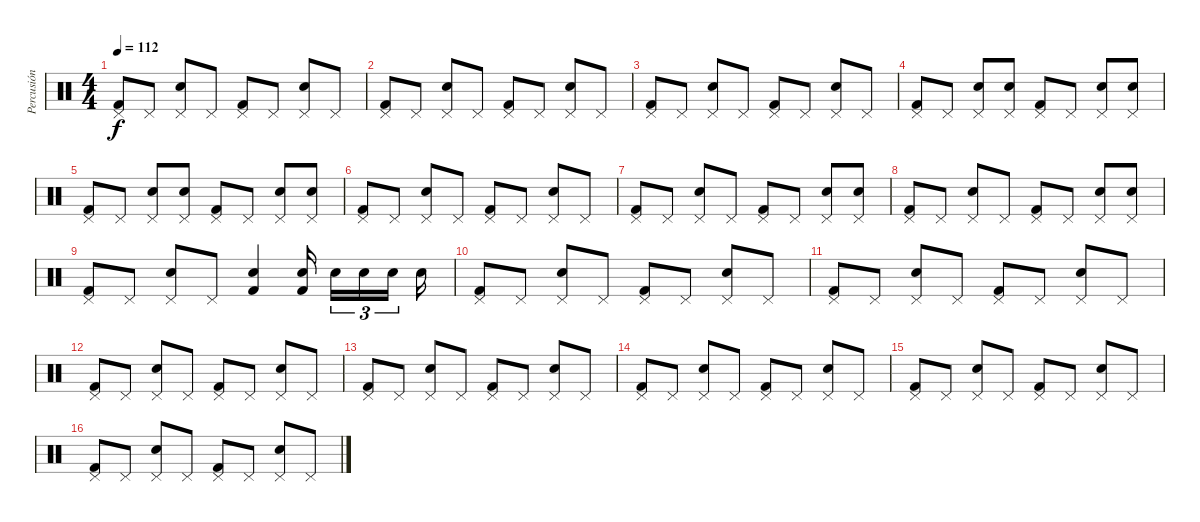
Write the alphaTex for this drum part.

\track ("Percusión" "Percusión") {instrument percussion}
\staff {score}
\articulation defaults
\ts (4 4)
\tempo 112
\clef neutral
\ks c
("Pedal Hi-Hat (hit)" "Kick (hit) 2").8{dy f} "Pedal Hi-Hat (hit)".8 ("Snare (hit) 2" "Pedal Hi-Hat (hit)").8 "Pedal Hi-Hat (hit)".8 ("Pedal Hi-Hat (hit)" "Kick (hit) 2").8 "Pedal Hi-Hat (hit)".8 ("Snare (hit) 2" "Pedal Hi-Hat (hit)").8 "Pedal Hi-Hat (hit)".8 |
("Pedal Hi-Hat (hit)" "Kick (hit) 2").8 "Pedal Hi-Hat (hit)".8 ("Snare (hit) 2" "Pedal Hi-Hat (hit)").8 "Pedal Hi-Hat (hit)".8 ("Pedal Hi-Hat (hit)" "Kick (hit) 2").8 "Pedal Hi-Hat (hit)".8 ("Snare (hit) 2" "Pedal Hi-Hat (hit)").8 "Pedal Hi-Hat (hit)".8 |
("Pedal Hi-Hat (hit)" "Kick (hit) 2").8 "Pedal Hi-Hat (hit)".8 ("Snare (hit) 2" "Pedal Hi-Hat (hit)").8 "Pedal Hi-Hat (hit)".8 ("Pedal Hi-Hat (hit)" "Kick (hit) 2").8 "Pedal Hi-Hat (hit)".8 ("Snare (hit) 2" "Pedal Hi-Hat (hit)").8 "Pedal Hi-Hat (hit)".8 |
("Pedal Hi-Hat (hit)" "Kick (hit) 2").8 "Pedal Hi-Hat (hit)".8 ("Snare (hit) 2" "Pedal Hi-Hat (hit)").8 ("Snare (hit) 2" "Pedal Hi-Hat (hit)").8 ("Pedal Hi-Hat (hit)" "Kick (hit) 2").8 "Pedal Hi-Hat (hit)".8 ("Snare (hit) 2" "Pedal Hi-Hat (hit)").8 ("Snare (hit) 2" "Pedal Hi-Hat (hit)").8 |
("Pedal Hi-Hat (hit)" "Kick (hit) 2").8 "Pedal Hi-Hat (hit)".8 ("Snare (hit) 2" "Pedal Hi-Hat (hit)").8 ("Snare (hit) 2" "Pedal Hi-Hat (hit)").8 ("Pedal Hi-Hat (hit)" "Kick (hit) 2").8 "Pedal Hi-Hat (hit)".8 ("Snare (hit) 2" "Pedal Hi-Hat (hit)").8 ("Snare (hit) 2" "Pedal Hi-Hat (hit)").8 |
("Pedal Hi-Hat (hit)" "Kick (hit) 2").8 "Pedal Hi-Hat (hit)".8 ("Snare (hit) 2" "Pedal Hi-Hat (hit)").8 "Pedal Hi-Hat (hit)".8 ("Pedal Hi-Hat (hit)" "Kick (hit) 2").8 "Pedal Hi-Hat (hit)".8 ("Snare (hit) 2" "Pedal Hi-Hat (hit)").8 "Pedal Hi-Hat (hit)".8 |
("Pedal Hi-Hat (hit)" "Kick (hit) 2").8 "Pedal Hi-Hat (hit)".8 ("Snare (hit) 2" "Pedal Hi-Hat (hit)").8 "Pedal Hi-Hat (hit)".8 ("Pedal Hi-Hat (hit)" "Kick (hit) 2").8 "Pedal Hi-Hat (hit)".8 ("Snare (hit) 2" "Pedal Hi-Hat (hit)").8 ("Snare (hit) 2" "Pedal Hi-Hat (hit)").8 |
("Pedal Hi-Hat (hit)" "Kick (hit) 2").8 "Pedal Hi-Hat (hit)".8 ("Snare (hit) 2" "Pedal Hi-Hat (hit)").8 "Pedal Hi-Hat (hit)".8 ("Pedal Hi-Hat (hit)" "Kick (hit) 2").8 "Pedal Hi-Hat (hit)".8 ("Snare (hit) 2" "Pedal Hi-Hat (hit)").8 ("Snare (hit) 2" "Pedal Hi-Hat (hit)").8 |
("Pedal Hi-Hat (hit)" "Kick (hit) 2").8 "Pedal Hi-Hat (hit)".8 ("Snare (hit) 2" "Pedal Hi-Hat (hit)").8 "Pedal Hi-Hat (hit)".8 ("Snare (hit) 2" "Kick (hit) 2").4 ("Snare (hit) 2" "Kick (hit) 2").16{beam splitsecondary} "Snare (hit) 2".16{tu (3 2)} "Snare (hit) 2".16{tu (3 2)} "Snare (hit) 2".16{tu (3 2) beam splitsecondary} "Snare (hit) 2".16 |
("Pedal Hi-Hat (hit)" "Kick (hit) 2").8 "Pedal Hi-Hat (hit)".8 ("Snare (hit) 2" "Pedal Hi-Hat (hit)").8 "Pedal Hi-Hat (hit)".8 ("Pedal Hi-Hat (hit)" "Kick (hit) 2").8 "Pedal Hi-Hat (hit)".8 ("Snare (hit) 2" "Pedal Hi-Hat (hit)").8 "Pedal Hi-Hat (hit)".8 |
("Pedal Hi-Hat (hit)" "Kick (hit) 2").8 "Pedal Hi-Hat (hit)".8 ("Snare (hit) 2" "Pedal Hi-Hat (hit)").8 "Pedal Hi-Hat (hit)".8 ("Pedal Hi-Hat (hit)" "Kick (hit) 2").8 "Pedal Hi-Hat (hit)".8 ("Snare (hit) 2" "Pedal Hi-Hat (hit)").8 "Pedal Hi-Hat (hit)".8 |
("Pedal Hi-Hat (hit)" "Kick (hit) 2").8 "Pedal Hi-Hat (hit)".8 ("Snare (hit) 2" "Pedal Hi-Hat (hit)").8 "Pedal Hi-Hat (hit)".8 ("Pedal Hi-Hat (hit)" "Kick (hit) 2").8 "Pedal Hi-Hat (hit)".8 ("Snare (hit) 2" "Pedal Hi-Hat (hit)").8 "Pedal Hi-Hat (hit)".8 |
("Pedal Hi-Hat (hit)" "Kick (hit) 2").8 "Pedal Hi-Hat (hit)".8 ("Snare (hit) 2" "Pedal Hi-Hat (hit)").8 "Pedal Hi-Hat (hit)".8 ("Pedal Hi-Hat (hit)" "Kick (hit) 2").8 "Pedal Hi-Hat (hit)".8 ("Snare (hit) 2" "Pedal Hi-Hat (hit)").8 "Pedal Hi-Hat (hit)".8 |
("Pedal Hi-Hat (hit)" "Kick (hit) 2").8 "Pedal Hi-Hat (hit)".8 ("Snare (hit) 2" "Pedal Hi-Hat (hit)").8 "Pedal Hi-Hat (hit)".8 ("Pedal Hi-Hat (hit)" "Kick (hit) 2").8 "Pedal Hi-Hat (hit)".8 ("Snare (hit) 2" "Pedal Hi-Hat (hit)").8 "Pedal Hi-Hat (hit)".8 |
("Pedal Hi-Hat (hit)" "Kick (hit) 2").8 "Pedal Hi-Hat (hit)".8 ("Snare (hit) 2" "Pedal Hi-Hat (hit)").8 "Pedal Hi-Hat (hit)".8 ("Pedal Hi-Hat (hit)" "Kick (hit) 2").8 "Pedal Hi-Hat (hit)".8 ("Snare (hit) 2" "Pedal Hi-Hat (hit)").8 "Pedal Hi-Hat (hit)".8 |
("Pedal Hi-Hat (hit)" "Kick (hit) 2").8 "Pedal Hi-Hat (hit)".8 ("Snare (hit) 2" "Pedal Hi-Hat (hit)").8 "Pedal Hi-Hat (hit)".8 ("Pedal Hi-Hat (hit)" "Kick (hit) 2").8 "Pedal Hi-Hat (hit)".8 ("Snare (hit) 2" "Pedal Hi-Hat (hit)").8 "Pedal Hi-Hat (hit)".8
